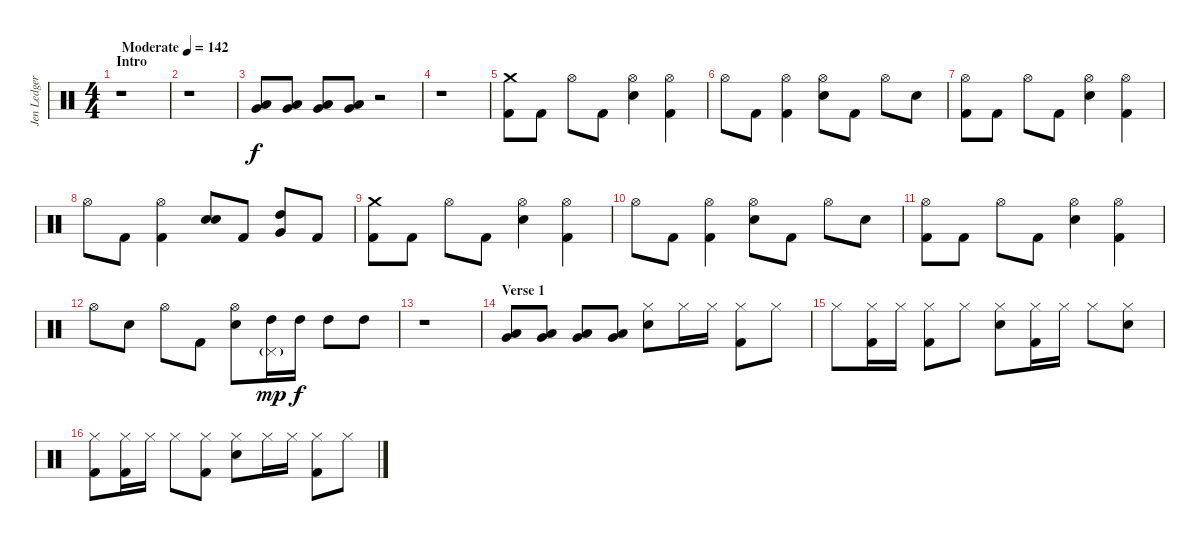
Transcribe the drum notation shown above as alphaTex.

\track ("Jen Ledger" "Jen Ledger") {instrument percussion}
\staff {score}
\articulation defaults
\ts (4 4)
\section ("" "Intro")
\tempo (142 "Moderate")
\clef neutral
\ks c
r.1{dy f} |
r.1 |
("Very Low Tom (hit)" "Low Floor Tom (hit)").8 ("Very Low Tom (hit)" "Low Floor Tom (hit)").8 ("Very Low Tom (hit)" "Low Floor Tom (hit)").8 ("Very Low Tom (hit)" "Low Floor Tom (hit)").8 r.2 |
r.1 |
("Crash medium (hit)" "Kick (hit) 2").8 "Kick (hit) 2".8 "Hi-Hat (open)".8 "Kick (hit) 2".8 ("Hi-Hat (open)" "Electric Snare (hit)").4 ("Hi-Hat (open)" "Kick (hit) 2").4 |
"Hi-Hat (open)".8 "Kick (hit) 2".8 ("Hi-Hat (open)" "Kick (hit) 2").4 ("Hi-Hat (open)" "Electric Snare (hit)").8 "Kick (hit) 2".8 "Hi-Hat (open)".8 "Electric Snare (hit)".8 |
("Hi-Hat (open)" "Kick (hit) 2").8 "Kick (hit) 2".8 "Hi-Hat (open)".8 "Kick (hit) 2".8 ("Hi-Hat (open)" "Electric Snare (hit)").4 ("Hi-Hat (open)" "Kick (hit) 2").4 |
"Hi-Hat (open)".8 "Kick (hit) 2".8 ("Hi-Hat (open)" "Kick (hit) 2").4 ("Electric Snare (hit)" "Electric Snare (hit)").8{bd 60} "Kick (hit) 2".8 ("High Tom (hit)" "Very Low Tom (hit)").8 "Kick (hit) 2".8 |
("Crash medium (hit)" "Kick (hit) 2").8 "Kick (hit) 2".8 "Hi-Hat (open)".8 "Kick (hit) 2".8 ("Hi-Hat (open)" "Electric Snare (hit)").4 ("Hi-Hat (open)" "Kick (hit) 2").4 |
"Hi-Hat (open)".8 "Kick (hit) 2".8 ("Hi-Hat (open)" "Kick (hit) 2").4 ("Hi-Hat (open)" "Electric Snare (hit)").8 "Kick (hit) 2".8 "Hi-Hat (open)".8 "Electric Snare (hit)".8 |
("Hi-Hat (open)" "Kick (hit) 2").8 "Kick (hit) 2".8 "Hi-Hat (open)".8 "Kick (hit) 2".8 ("Hi-Hat (open)" "Electric Snare (hit)").4 ("Hi-Hat (open)" "Kick (hit) 2").4 |
"Hi-Hat (open)".8 "Electric Snare (hit)".8 "Hi-Hat (open)".8 "Kick (hit) 2".8 ("Hi-Hat (open)" "Electric Snare (hit)").8 ("High Tom (hit)" "Pedal Hi-Hat (hit)"{g}).16{dy mp} "High Tom (hit)".16{dy f} "High Tom (hit)".8 "High Tom (hit)".8 |
r.1 |
\section ("" "Verse 1")
("Very Low Tom (hit)" "Low Floor Tom (hit)").8 ("Very Low Tom (hit)" "Low Floor Tom (hit)").8 ("Very Low Tom (hit)" "Low Floor Tom (hit)").8 ("Very Low Tom (hit)" "Low Floor Tom (hit)").8 ("Hi-Hat (closed)" "Electric Snare (hit)").8 "Hi-Hat (closed)".16 "Hi-Hat (closed)".16 ("Hi-Hat (closed)" "Kick (hit) 2").8 "Hi-Hat (closed)".8 |
"Hi-Hat (closed)".8 ("Hi-Hat (closed)" "Kick (hit) 2").16 "Hi-Hat (closed)".16 ("Hi-Hat (closed)" "Kick (hit) 2").8 "Hi-Hat (closed)".8 ("Hi-Hat (closed)" "Electric Snare (hit)").8 ("Hi-Hat (closed)" "Kick (hit) 2").16 "Hi-Hat (closed)".16 "Hi-Hat (closed)".8 ("Hi-Hat (closed)" "Electric Snare (hit)").8 |
("Hi-Hat (closed)" "Kick (hit) 2").8 ("Hi-Hat (closed)" "Kick (hit) 2").16 "Hi-Hat (closed)".16 "Hi-Hat (closed)".8 ("Hi-Hat (closed)" "Kick (hit) 2").8 ("Hi-Hat (closed)" "Electric Snare (hit)").8 "Hi-Hat (closed)".16 "Hi-Hat (closed)".16 ("Hi-Hat (closed)" "Kick (hit) 2").8 "Hi-Hat (closed)".8
